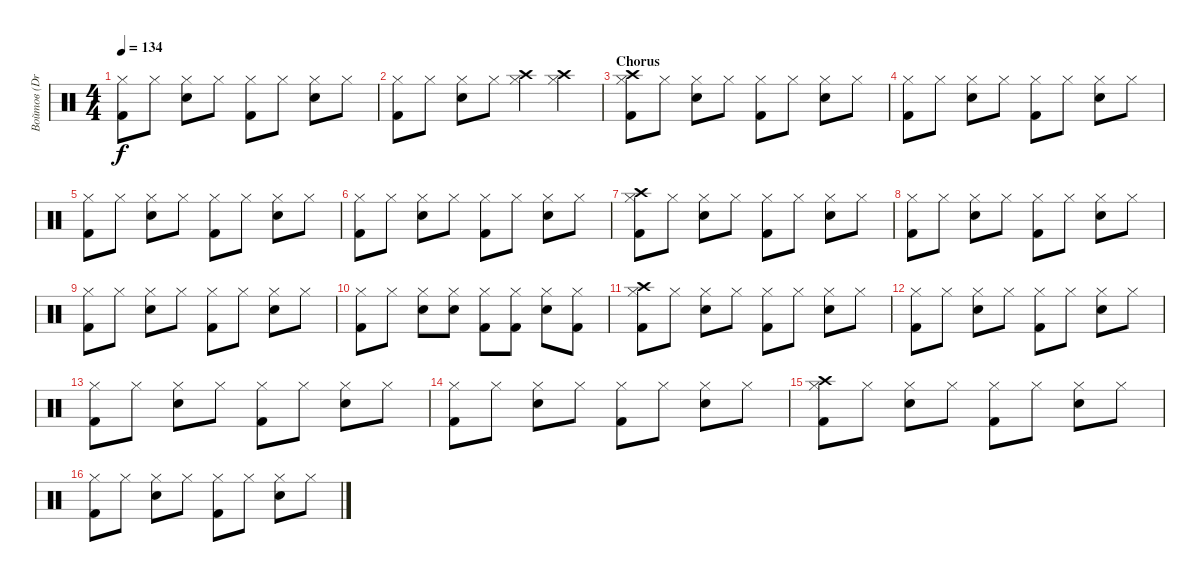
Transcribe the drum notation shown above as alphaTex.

\track ("Войтов (Drums)" "Войтов (Dr") {instrument percussion}
\staff {score}
\articulation defaults
\ts (4 4)
\tempo 134
\clef neutral
\ks c
("Hi-Hat (closed)" "Kick (hit) 2").8{dy f} "Hi-Hat (closed)".8 ("Hi-Hat (closed)" "Electric Snare (hit)").8 "Hi-Hat (closed)".8 ("Hi-Hat (closed)" "Kick (hit) 2").8 "Hi-Hat (closed)".8 ("Hi-Hat (closed)" "Electric Snare (hit)").8 "Hi-Hat (closed)".8 |
("Hi-Hat (closed)" "Kick (hit) 2").8 "Hi-Hat (closed)".8 ("Hi-Hat (closed)" "Electric Snare (hit)").8 "Hi-Hat (closed)".8 ("Hi-Hat (closed)" "Crash high (hit)").4 ("Hi-Hat (closed)" "Crash high (hit)").4 |
\section ("" "Chorus")
("Hi-Hat (closed)" "Kick (hit) 2" "Crash high (hit)").8 "Hi-Hat (closed)".8 ("Hi-Hat (closed)" "Electric Snare (hit)").8 "Hi-Hat (closed)".8 ("Hi-Hat (closed)" "Kick (hit) 2").8 "Hi-Hat (closed)".8 ("Hi-Hat (closed)" "Electric Snare (hit)").8 "Hi-Hat (closed)".8 |
("Hi-Hat (closed)" "Kick (hit) 2").8 "Hi-Hat (closed)".8 ("Hi-Hat (closed)" "Electric Snare (hit)").8 "Hi-Hat (closed)".8 ("Hi-Hat (closed)" "Kick (hit) 2").8 "Hi-Hat (closed)".8 ("Hi-Hat (closed)" "Electric Snare (hit)").8 "Hi-Hat (closed)".8 |
("Hi-Hat (closed)" "Kick (hit) 2").8 "Hi-Hat (closed)".8 ("Hi-Hat (closed)" "Electric Snare (hit)").8 "Hi-Hat (closed)".8 ("Hi-Hat (closed)" "Kick (hit) 2").8 "Hi-Hat (closed)".8 ("Hi-Hat (closed)" "Electric Snare (hit)").8 "Hi-Hat (closed)".8 |
("Hi-Hat (closed)" "Kick (hit) 2").8 "Hi-Hat (closed)".8 ("Hi-Hat (closed)" "Electric Snare (hit)").8 "Hi-Hat (closed)".8 ("Hi-Hat (closed)" "Kick (hit) 2").8 "Hi-Hat (closed)".8 ("Hi-Hat (closed)" "Electric Snare (hit)").8 "Hi-Hat (closed)".8 |
("Hi-Hat (closed)" "Kick (hit) 2" "Crash high (hit)").8 "Hi-Hat (closed)".8 ("Hi-Hat (closed)" "Electric Snare (hit)").8 "Hi-Hat (closed)".8 ("Hi-Hat (closed)" "Kick (hit) 2").8 "Hi-Hat (closed)".8 ("Hi-Hat (closed)" "Electric Snare (hit)").8 "Hi-Hat (closed)".8 |
("Hi-Hat (closed)" "Kick (hit) 2").8 "Hi-Hat (closed)".8 ("Hi-Hat (closed)" "Electric Snare (hit)").8 "Hi-Hat (closed)".8 ("Hi-Hat (closed)" "Kick (hit) 2").8 "Hi-Hat (closed)".8 ("Hi-Hat (closed)" "Electric Snare (hit)").8 "Hi-Hat (closed)".8 |
("Hi-Hat (closed)" "Kick (hit) 2").8 "Hi-Hat (closed)".8 ("Hi-Hat (closed)" "Electric Snare (hit)").8 "Hi-Hat (closed)".8 ("Hi-Hat (closed)" "Kick (hit) 2").8 "Hi-Hat (closed)".8 ("Hi-Hat (closed)" "Electric Snare (hit)").8 "Hi-Hat (closed)".8 |
("Hi-Hat (closed)" "Kick (hit) 2").8 "Hi-Hat (closed)".8 ("Hi-Hat (closed)" "Electric Snare (hit)").8 ("Hi-Hat (closed)" "Electric Snare (hit)").8 ("Hi-Hat (closed)" "Kick (hit) 2").8 ("Hi-Hat (closed)" "Kick (hit) 2").8 ("Hi-Hat (closed)" "Electric Snare (hit)").8 ("Hi-Hat (closed)" "Kick (hit) 2").8 |
("Hi-Hat (closed)" "Kick (hit) 2" "Crash high (hit)").8 "Hi-Hat (closed)".8 ("Hi-Hat (closed)" "Electric Snare (hit)").8 "Hi-Hat (closed)".8 ("Hi-Hat (closed)" "Kick (hit) 2").8 "Hi-Hat (closed)".8 ("Hi-Hat (closed)" "Electric Snare (hit)").8 "Hi-Hat (closed)".8 |
("Hi-Hat (closed)" "Kick (hit) 2").8 "Hi-Hat (closed)".8 ("Hi-Hat (closed)" "Electric Snare (hit)").8 "Hi-Hat (closed)".8 ("Hi-Hat (closed)" "Kick (hit) 2").8 "Hi-Hat (closed)".8 ("Hi-Hat (closed)" "Electric Snare (hit)").8 "Hi-Hat (closed)".8 |
("Hi-Hat (closed)" "Kick (hit) 2").8 "Hi-Hat (closed)".8 ("Hi-Hat (closed)" "Electric Snare (hit)").8 "Hi-Hat (closed)".8 ("Hi-Hat (closed)" "Kick (hit) 2").8 "Hi-Hat (closed)".8 ("Hi-Hat (closed)" "Electric Snare (hit)").8 "Hi-Hat (closed)".8 |
("Hi-Hat (closed)" "Kick (hit) 2").8 "Hi-Hat (closed)".8 ("Hi-Hat (closed)" "Electric Snare (hit)").8 "Hi-Hat (closed)".8 ("Hi-Hat (closed)" "Kick (hit) 2").8 "Hi-Hat (closed)".8 ("Hi-Hat (closed)" "Electric Snare (hit)").8 "Hi-Hat (closed)".8 |
("Hi-Hat (closed)" "Kick (hit) 2" "Crash high (hit)").8 "Hi-Hat (closed)".8 ("Hi-Hat (closed)" "Electric Snare (hit)").8 "Hi-Hat (closed)".8 ("Hi-Hat (closed)" "Kick (hit) 2").8 "Hi-Hat (closed)".8 ("Hi-Hat (closed)" "Electric Snare (hit)").8 "Hi-Hat (closed)".8 |
("Hi-Hat (closed)" "Kick (hit) 2").8 "Hi-Hat (closed)".8 ("Hi-Hat (closed)" "Electric Snare (hit)").8 "Hi-Hat (closed)".8 ("Hi-Hat (closed)" "Kick (hit) 2").8 "Hi-Hat (closed)".8 ("Hi-Hat (closed)" "Electric Snare (hit)").8 "Hi-Hat (closed)".8
